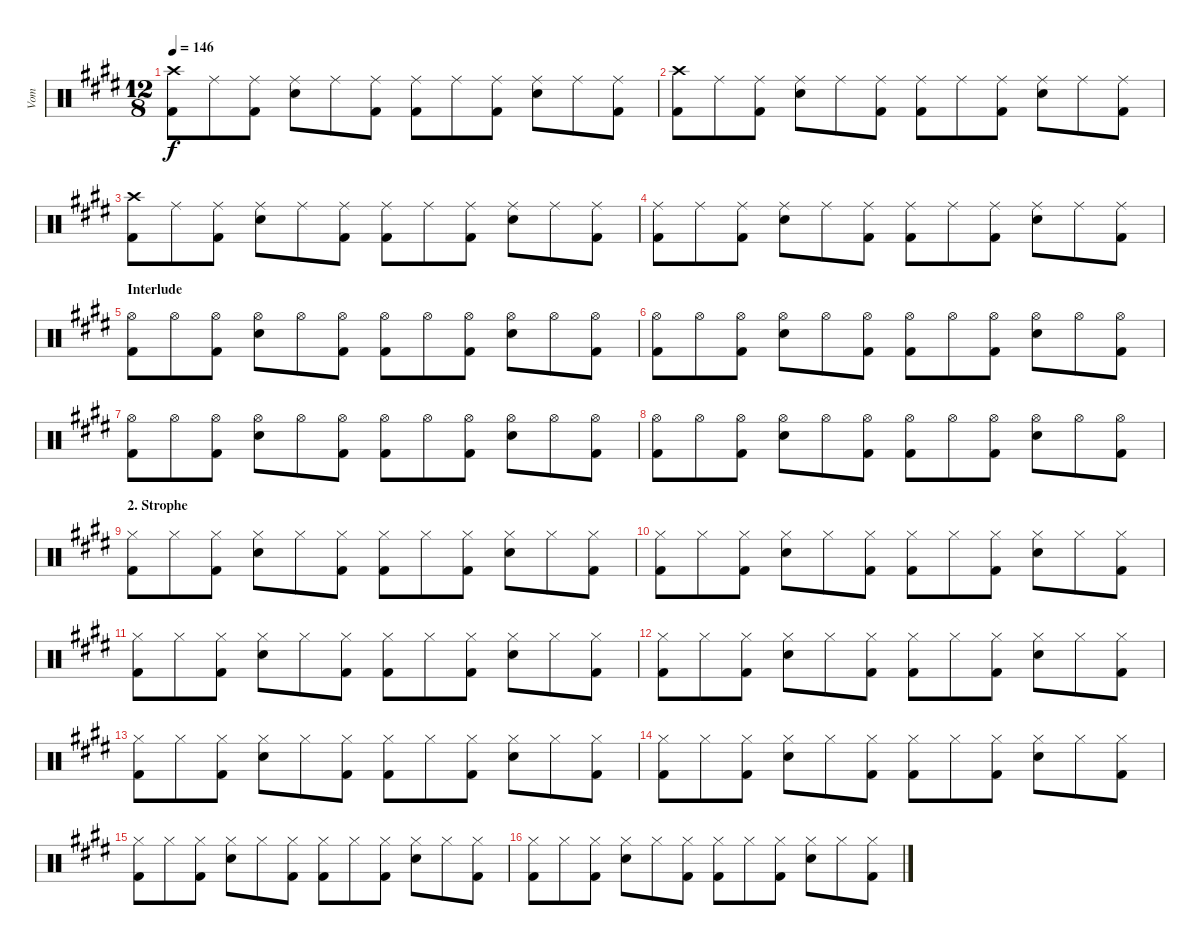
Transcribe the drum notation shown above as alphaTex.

\track ("Vom" "Vom") {instrument percussion}
\staff {score}
\articulation defaults
\ts (12 8)
\tempo 146
\clef neutral
\ks e
("Crash high (hit)" "Kick (hit) 2").8{dy f} "Ride (middle)".8 ("Ride (middle)" "Kick (hit) 2").8 ("Ride (middle)" "Snare (hit) 2").8 "Ride (middle)".8 ("Ride (middle)" "Kick (hit) 2").8 ("Ride (middle)" "Kick (hit) 2").8 "Ride (middle)".8 ("Ride (middle)" "Kick (hit) 2").8 ("Ride (middle)" "Snare (hit) 2").8 "Ride (middle)".8 ("Ride (middle)" "Kick (hit) 2").8 |
("Crash high (hit)" "Kick (hit) 2").8 "Ride (middle)".8 ("Ride (middle)" "Kick (hit) 2").8 ("Ride (middle)" "Snare (hit) 2").8 "Ride (middle)".8 ("Ride (middle)" "Kick (hit) 2").8 ("Ride (middle)" "Kick (hit) 2").8 "Ride (middle)".8 ("Ride (middle)" "Kick (hit) 2").8 ("Ride (middle)" "Snare (hit) 2").8 "Ride (middle)".8 ("Ride (middle)" "Kick (hit) 2").8 |
("Crash high (hit)" "Kick (hit) 2").8 "Ride (middle)".8 ("Ride (middle)" "Kick (hit) 2").8 ("Ride (middle)" "Snare (hit) 2").8 "Ride (middle)".8 ("Ride (middle)" "Kick (hit) 2").8 ("Ride (middle)" "Kick (hit) 2").8 "Ride (middle)".8 ("Ride (middle)" "Kick (hit) 2").8 ("Ride (middle)" "Snare (hit) 2").8 "Ride (middle)".8 ("Ride (middle)" "Kick (hit) 2").8 |
("Ride (middle)" "Kick (hit) 2").8 "Ride (middle)".8 ("Ride (middle)" "Kick (hit) 2").8 ("Ride (middle)" "Snare (hit) 2").8 "Ride (middle)".8 ("Ride (middle)" "Kick (hit) 2").8 ("Ride (middle)" "Kick (hit) 2").8 "Ride (middle)".8 ("Ride (middle)" "Kick (hit) 2").8 ("Ride (middle)" "Snare (hit) 2").8 "Ride (middle)".8 ("Ride (middle)" "Kick (hit) 2").8 |
\section ("" "Interlude")
("Hi-Hat (open)" "Kick (hit) 2").8 "Hi-Hat (open)".8 ("Hi-Hat (open)" "Kick (hit) 2").8 ("Hi-Hat (open)" "Snare (hit) 2").8 "Hi-Hat (open)".8 ("Hi-Hat (open)" "Kick (hit) 2").8 ("Hi-Hat (open)" "Kick (hit) 2").8 "Hi-Hat (open)".8 ("Hi-Hat (open)" "Kick (hit) 2").8 ("Hi-Hat (open)" "Snare (hit) 2").8 "Hi-Hat (open)".8 ("Hi-Hat (open)" "Kick (hit) 2").8 |
("Hi-Hat (open)" "Kick (hit) 2").8 "Hi-Hat (open)".8 ("Hi-Hat (open)" "Kick (hit) 2").8 ("Hi-Hat (open)" "Snare (hit) 2").8 "Hi-Hat (open)".8 ("Hi-Hat (open)" "Kick (hit) 2").8 ("Hi-Hat (open)" "Kick (hit) 2").8 "Hi-Hat (open)".8 ("Hi-Hat (open)" "Kick (hit) 2").8 ("Hi-Hat (open)" "Snare (hit) 2").8 "Hi-Hat (open)".8 ("Hi-Hat (open)" "Kick (hit) 2").8 |
("Hi-Hat (open)" "Kick (hit) 2").8 "Hi-Hat (open)".8 ("Hi-Hat (open)" "Kick (hit) 2").8 ("Hi-Hat (open)" "Snare (hit) 2").8 "Hi-Hat (open)".8 ("Hi-Hat (open)" "Kick (hit) 2").8 ("Hi-Hat (open)" "Kick (hit) 2").8 "Hi-Hat (open)".8 ("Hi-Hat (open)" "Kick (hit) 2").8 ("Hi-Hat (open)" "Snare (hit) 2").8 "Hi-Hat (open)".8 ("Hi-Hat (open)" "Kick (hit) 2").8 |
("Hi-Hat (open)" "Kick (hit) 2").8 "Hi-Hat (open)".8 ("Hi-Hat (open)" "Kick (hit) 2").8 ("Hi-Hat (open)" "Snare (hit) 2").8 "Hi-Hat (open)".8 ("Hi-Hat (open)" "Kick (hit) 2").8 ("Hi-Hat (open)" "Kick (hit) 2").8 "Hi-Hat (open)".8 ("Hi-Hat (open)" "Kick (hit) 2").8 ("Hi-Hat (open)" "Snare (hit) 2").8 "Hi-Hat (open)".8 ("Hi-Hat (open)" "Kick (hit) 2").8 |
\section ("" "2. Strophe")
("Hi-Hat (closed)" "Kick (hit) 2").8 "Hi-Hat (closed)".8 ("Hi-Hat (closed)" "Kick (hit) 2").8 ("Hi-Hat (closed)" "Snare (hit) 2").8 "Hi-Hat (closed)".8 ("Hi-Hat (closed)" "Kick (hit) 2").8 ("Hi-Hat (closed)" "Kick (hit) 2").8 "Hi-Hat (closed)".8 ("Hi-Hat (closed)" "Kick (hit) 2").8 ("Hi-Hat (closed)" "Snare (hit) 2").8 "Hi-Hat (closed)".8 ("Hi-Hat (closed)" "Kick (hit) 2").8 |
("Hi-Hat (closed)" "Kick (hit) 2").8 "Hi-Hat (closed)".8 ("Hi-Hat (closed)" "Kick (hit) 2").8 ("Hi-Hat (closed)" "Snare (hit) 2").8 "Hi-Hat (closed)".8 ("Hi-Hat (closed)" "Kick (hit) 2").8 ("Hi-Hat (closed)" "Kick (hit) 2").8 "Hi-Hat (closed)".8 ("Hi-Hat (closed)" "Kick (hit) 2").8 ("Hi-Hat (closed)" "Snare (hit) 2").8 "Hi-Hat (closed)".8 ("Hi-Hat (closed)" "Kick (hit) 2").8 |
("Hi-Hat (closed)" "Kick (hit) 2").8 "Hi-Hat (closed)".8 ("Hi-Hat (closed)" "Kick (hit) 2").8 ("Hi-Hat (closed)" "Snare (hit) 2").8 "Hi-Hat (closed)".8 ("Hi-Hat (closed)" "Kick (hit) 2").8 ("Hi-Hat (closed)" "Kick (hit) 2").8 "Hi-Hat (closed)".8 ("Hi-Hat (closed)" "Kick (hit) 2").8 ("Hi-Hat (closed)" "Snare (hit) 2").8 "Hi-Hat (closed)".8 ("Hi-Hat (closed)" "Kick (hit) 2").8 |
("Hi-Hat (closed)" "Kick (hit) 2").8 "Hi-Hat (closed)".8 ("Hi-Hat (closed)" "Kick (hit) 2").8 ("Hi-Hat (closed)" "Snare (hit) 2").8 "Hi-Hat (closed)".8 ("Hi-Hat (closed)" "Kick (hit) 2").8 ("Hi-Hat (closed)" "Kick (hit) 2").8 "Hi-Hat (closed)".8 ("Hi-Hat (closed)" "Kick (hit) 2").8 ("Hi-Hat (closed)" "Snare (hit) 2").8 "Hi-Hat (closed)".8 ("Hi-Hat (closed)" "Kick (hit) 2").8 |
("Hi-Hat (closed)" "Kick (hit) 2").8 "Hi-Hat (closed)".8 ("Hi-Hat (closed)" "Kick (hit) 2").8 ("Hi-Hat (closed)" "Snare (hit) 2").8 "Hi-Hat (closed)".8 ("Hi-Hat (closed)" "Kick (hit) 2").8 ("Hi-Hat (closed)" "Kick (hit) 2").8 "Hi-Hat (closed)".8 ("Hi-Hat (closed)" "Kick (hit) 2").8 ("Hi-Hat (closed)" "Snare (hit) 2").8 "Hi-Hat (closed)".8 ("Hi-Hat (closed)" "Kick (hit) 2").8 |
("Hi-Hat (closed)" "Kick (hit) 2").8 "Hi-Hat (closed)".8 ("Hi-Hat (closed)" "Kick (hit) 2").8 ("Hi-Hat (closed)" "Snare (hit) 2").8 "Hi-Hat (closed)".8 ("Hi-Hat (closed)" "Kick (hit) 2").8 ("Hi-Hat (closed)" "Kick (hit) 2").8 "Hi-Hat (closed)".8 ("Hi-Hat (closed)" "Kick (hit) 2").8 ("Hi-Hat (closed)" "Snare (hit) 2").8 "Hi-Hat (closed)".8 ("Hi-Hat (closed)" "Kick (hit) 2").8 |
("Hi-Hat (closed)" "Kick (hit) 2").8 "Hi-Hat (closed)".8 ("Hi-Hat (closed)" "Kick (hit) 2").8 ("Hi-Hat (closed)" "Snare (hit) 2").8 "Hi-Hat (closed)".8 ("Hi-Hat (closed)" "Kick (hit) 2").8 ("Hi-Hat (closed)" "Kick (hit) 2").8 "Hi-Hat (closed)".8 ("Hi-Hat (closed)" "Kick (hit) 2").8 ("Hi-Hat (closed)" "Snare (hit) 2").8 "Hi-Hat (closed)".8 ("Hi-Hat (closed)" "Kick (hit) 2").8 |
("Hi-Hat (closed)" "Kick (hit) 2").8 "Hi-Hat (closed)".8 ("Hi-Hat (closed)" "Kick (hit) 2").8 ("Hi-Hat (closed)" "Snare (hit) 2").8 "Hi-Hat (closed)".8 ("Hi-Hat (closed)" "Kick (hit) 2").8 ("Hi-Hat (closed)" "Kick (hit) 2").8 "Hi-Hat (closed)".8 ("Hi-Hat (closed)" "Kick (hit) 2").8 ("Hi-Hat (closed)" "Snare (hit) 2").8 "Hi-Hat (closed)".8 ("Hi-Hat (closed)" "Kick (hit) 2").8
